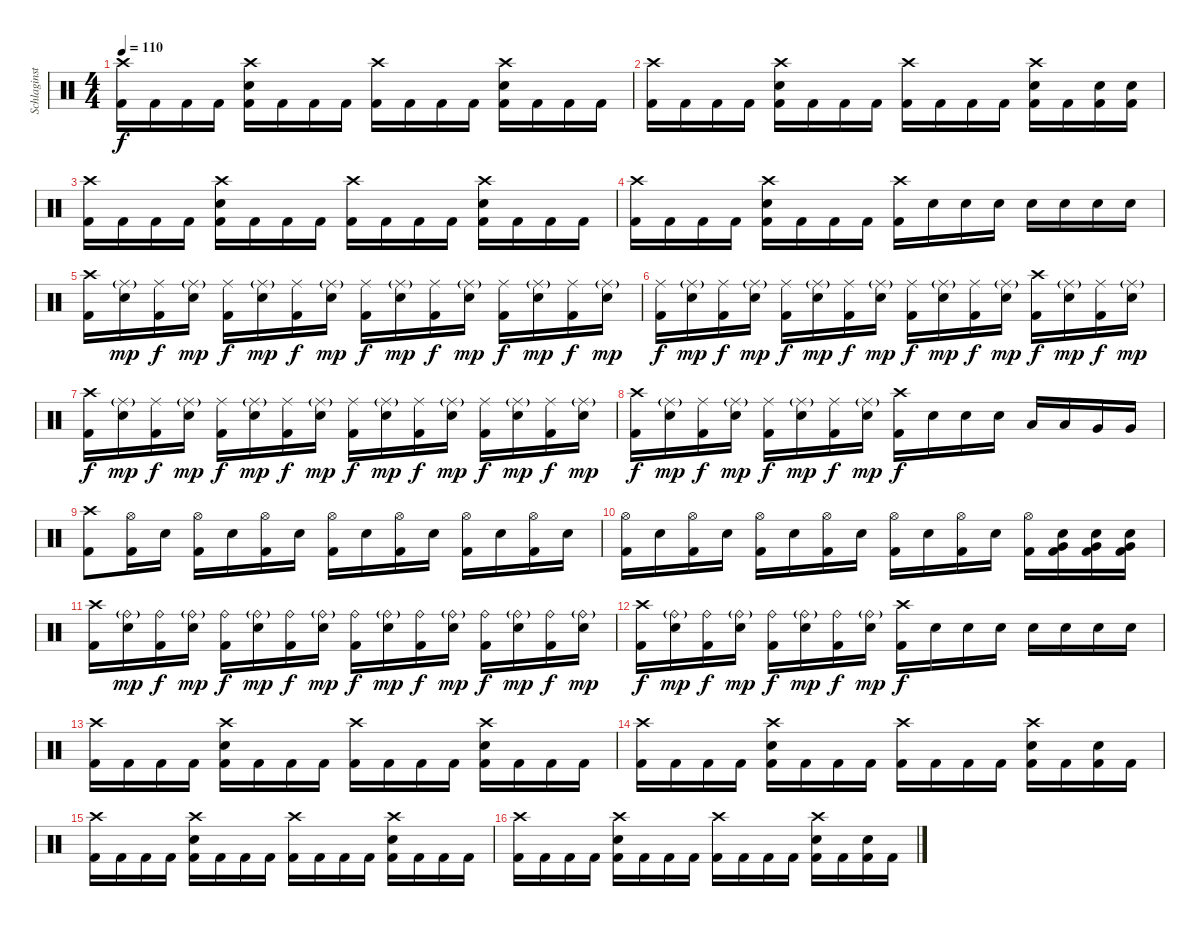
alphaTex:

\track ("Schlaginstrumente - Auswahl" "Schlaginst") {instrument percussion}
\staff {score}
\articulation defaults
\ts (4 4)
\tempo 110
\clef neutral
\ks c
("Crash high (hit)" "Kick (hit) 2").16{dy f} "Kick (hit) 2".16 "Kick (hit) 2".16 "Kick (hit) 2".16 ("Crash high (hit)" "Snare (hit) 2" "Kick (hit) 2").16 "Kick (hit) 2".16 "Kick (hit) 2".16 "Kick (hit) 2".16 ("Crash high (hit)" "Kick (hit) 2").16 "Kick (hit) 2".16 "Kick (hit) 2".16 "Kick (hit) 2".16 ("Crash high (hit)" "Snare (hit) 2" "Kick (hit) 2").16 "Kick (hit) 2".16 "Kick (hit) 2".16 "Kick (hit) 2".16 |
("Crash high (hit)" "Kick (hit) 2").16 "Kick (hit) 2".16 "Kick (hit) 2".16 "Kick (hit) 2".16 ("Crash high (hit)" "Snare (hit) 2" "Kick (hit) 2").16 "Kick (hit) 2".16 "Kick (hit) 2".16 "Kick (hit) 2".16 ("Crash high (hit)" "Kick (hit) 2").16 "Kick (hit) 2".16 "Kick (hit) 2".16 "Kick (hit) 2".16 ("Crash high (hit)" "Snare (hit) 2" "Kick (hit) 2").16 "Kick (hit) 2".16 ("Snare (hit) 2" "Kick (hit) 2").16 ("Snare (hit) 2" "Kick (hit) 2").16 |
("Crash high (hit)" "Kick (hit) 2").16 "Kick (hit) 2".16 "Kick (hit) 2".16 "Kick (hit) 2".16 ("Crash high (hit)" "Snare (hit) 2" "Kick (hit) 2").16 "Kick (hit) 2".16 "Kick (hit) 2".16 "Kick (hit) 2".16 ("Crash high (hit)" "Kick (hit) 2").16 "Kick (hit) 2".16 "Kick (hit) 2".16 "Kick (hit) 2".16 ("Crash high (hit)" "Snare (hit) 2" "Kick (hit) 2").16 "Kick (hit) 2".16 "Kick (hit) 2".16 "Kick (hit) 2".16 |
("Crash high (hit)" "Kick (hit) 2").16 "Kick (hit) 2".16 "Kick (hit) 2".16 "Kick (hit) 2".16 ("Crash high (hit)" "Snare (hit) 2" "Kick (hit) 2").16 "Kick (hit) 2".16 "Kick (hit) 2".16 "Kick (hit) 2".16 ("Crash high (hit)" "Kick (hit) 2").16 "Snare (hit) 2".16 "Snare (hit) 2".16 "Snare (hit) 2".16 "Snare (hit) 2".16 "Snare (hit) 2".16 "Snare (hit) 2".16 "Snare (hit) 2".16 |
("Crash high (hit)" "Kick (hit) 2").16 ("Ride (middle)"{g} "Snare (hit) 2").16{dy mp} ("Ride (middle)" "Kick (hit) 2").16{dy f} ("Ride (middle)"{g} "Snare (hit) 2").16{dy mp} ("Ride (middle)" "Kick (hit) 2").16{dy f} ("Ride (middle)"{g} "Snare (hit) 2").16{dy mp} ("Ride (middle)" "Kick (hit) 2").16{dy f} ("Ride (middle)"{g} "Snare (hit) 2").16{dy mp} ("Ride (middle)" "Kick (hit) 2").16{dy f} ("Ride (middle)"{g} "Snare (hit) 2").16{dy mp} ("Ride (middle)" "Kick (hit) 2").16{dy f} ("Ride (middle)"{g} "Snare (hit) 2").16{dy mp} ("Ride (middle)" "Kick (hit) 2").16{dy f} ("Ride (middle)"{g} "Snare (hit) 2").16{dy mp} ("Ride (middle)" "Kick (hit) 2").16{dy f} ("Ride (middle)"{g} "Snare (hit) 2").16{dy mp} |
("Ride (middle)" "Kick (hit) 2").16{dy f} ("Ride (middle)"{g} "Snare (hit) 2").16{dy mp} ("Ride (middle)" "Kick (hit) 2").16{dy f} ("Ride (middle)"{g} "Snare (hit) 2").16{dy mp} ("Ride (middle)" "Kick (hit) 2").16{dy f} ("Ride (middle)"{g} "Snare (hit) 2").16{dy mp} ("Ride (middle)" "Kick (hit) 2").16{dy f} ("Ride (middle)"{g} "Snare (hit) 2").16{dy mp} ("Ride (middle)" "Kick (hit) 2").16{dy f} ("Ride (middle)"{g} "Snare (hit) 2").16{dy mp} ("Ride (middle)" "Kick (hit) 2").16{dy f} ("Ride (middle)"{g} "Snare (hit) 2").16{dy mp} ("Crash high (hit)" "Kick (hit) 2").16{dy f} ("Ride (middle)"{g} "Snare (hit) 2").16{dy mp} ("Ride (middle)" "Kick (hit) 2").16{dy f} ("Ride (middle)"{g} "Snare (hit) 2").16{dy mp} |
("Crash high (hit)" "Kick (hit) 2").16{dy f} ("Ride (middle)"{g} "Snare (hit) 2").16{dy mp} ("Ride (middle)" "Kick (hit) 2").16{dy f} ("Ride (middle)"{g} "Snare (hit) 2").16{dy mp} ("Ride (middle)" "Kick (hit) 2").16{dy f} ("Ride (middle)"{g} "Snare (hit) 2").16{dy mp} ("Ride (middle)" "Kick (hit) 2").16{dy f} ("Ride (middle)"{g} "Snare (hit) 2").16{dy mp} ("Ride (middle)" "Kick (hit) 2").16{dy f} ("Ride (middle)"{g} "Snare (hit) 2").16{dy mp} ("Ride (middle)" "Kick (hit) 2").16{dy f} ("Ride (middle)"{g} "Snare (hit) 2").16{dy mp} ("Ride (middle)" "Kick (hit) 2").16{dy f} ("Ride (middle)"{g} "Snare (hit) 2").16{dy mp} ("Ride (middle)" "Kick (hit) 2").16{dy f} ("Ride (middle)"{g} "Snare (hit) 2").16{dy mp} |
("Crash high (hit)" "Kick (hit) 2").16{dy f} ("Ride (middle)"{g} "Snare (hit) 2").16{dy mp} ("Ride (middle)" "Kick (hit) 2").16{dy f} ("Ride (middle)"{g} "Snare (hit) 2").16{dy mp} ("Ride (middle)" "Kick (hit) 2").16{dy f} ("Ride (middle)"{g} "Snare (hit) 2").16{dy mp} ("Ride (middle)" "Kick (hit) 2").16{dy f} ("Ride (middle)"{g} "Snare (hit) 2").16{dy mp} ("Crash high (hit)" "Kick (hit) 2").16{dy f} "Snare (hit) 2".16 "Snare (hit) 2".16 "Snare (hit) 2".16 "Low Tom (hit)".16 "Low Tom (hit)".16 "Very Low Tom (hit)".16 "Very Low Tom (hit)".16 |
("Crash high (hit)" "Kick (hit) 2").8 ("Hi-Hat (open)" "Kick (hit) 2").16 "Snare (hit) 2".16 ("Hi-Hat (open)" "Kick (hit) 2").16 "Snare (hit) 2".16 ("Hi-Hat (open)" "Kick (hit) 2").16 "Snare (hit) 2".16 ("Hi-Hat (open)" "Kick (hit) 2").16 "Snare (hit) 2".16 ("Hi-Hat (open)" "Kick (hit) 2").16 "Snare (hit) 2".16 ("Hi-Hat (open)" "Kick (hit) 2").16 "Snare (hit) 2".16 ("Hi-Hat (open)" "Kick (hit) 2").16 "Snare (hit) 2".16 |
("Hi-Hat (open)" "Kick (hit) 2").16 "Snare (hit) 2".16 ("Hi-Hat (open)" "Kick (hit) 2").16 "Snare (hit) 2".16 ("Hi-Hat (open)" "Kick (hit) 2").16 "Snare (hit) 2".16 ("Hi-Hat (open)" "Kick (hit) 2").16 "Snare (hit) 2".16 ("Hi-Hat (open)" "Kick (hit) 2").16 "Snare (hit) 2".16 ("Hi-Hat (open)" "Kick (hit) 2").16 "Snare (hit) 2".16 ("Hi-Hat (open)" "Kick (hit) 2").16 ("Snare (hit) 2" "Very Low Tom (hit)" "Kick (hit) 2").16 ("Snare (hit) 2" "Very Low Tom (hit)" "Kick (hit) 2").16 ("Snare (hit) 2" "Very Low Tom (hit)" "Kick (hit) 2").16 |
("Crash high (hit)" "Kick (hit) 2").16 ("Ride (bell)"{g} "Snare (hit) 2").16{dy mp} ("Ride (bell)" "Kick (hit) 2").16{dy f} ("Ride (bell)"{g} "Snare (hit) 2").16{dy mp} ("Ride (bell)" "Kick (hit) 2").16{dy f} ("Ride (bell)"{g} "Snare (hit) 2").16{dy mp} ("Ride (bell)" "Kick (hit) 2").16{dy f} ("Ride (bell)"{g} "Snare (hit) 2").16{dy mp} ("Ride (bell)" "Kick (hit) 2").16{dy f} ("Ride (bell)"{g} "Snare (hit) 2").16{dy mp} ("Ride (bell)" "Kick (hit) 2").16{dy f} ("Ride (bell)"{g} "Snare (hit) 2").16{dy mp} ("Ride (bell)" "Kick (hit) 2").16{dy f} ("Ride (bell)"{g} "Snare (hit) 2").16{dy mp} ("Ride (bell)" "Kick (hit) 2").16{dy f} ("Ride (bell)"{g} "Snare (hit) 2").16{dy mp} |
("Crash high (hit)" "Kick (hit) 2").16{dy f} ("Ride (bell)"{g} "Snare (hit) 2").16{dy mp} ("Ride (bell)" "Kick (hit) 2").16{dy f} ("Ride (bell)"{g} "Snare (hit) 2").16{dy mp} ("Ride (bell)" "Kick (hit) 2").16{dy f} ("Ride (bell)"{g} "Snare (hit) 2").16{dy mp} ("Ride (bell)" "Kick (hit) 2").16{dy f} ("Ride (bell)"{g} "Snare (hit) 2").16{dy mp} ("Crash high (hit)" "Kick (hit) 2").16{dy f} "Snare (hit) 2".16 "Snare (hit) 2".16 "Snare (hit) 2".16 "Snare (hit) 2".16 "Snare (hit) 2".16 "Snare (hit) 2".16 "Snare (hit) 2".16 |
("Crash high (hit)" "Kick (hit) 2").16 "Kick (hit) 2".16 "Kick (hit) 2".16 "Kick (hit) 2".16 ("Crash high (hit)" "Snare (hit) 2" "Kick (hit) 2").16 "Kick (hit) 2".16 "Kick (hit) 2".16 "Kick (hit) 2".16 ("Crash high (hit)" "Kick (hit) 2").16 "Kick (hit) 2".16 "Kick (hit) 2".16 "Kick (hit) 2".16 ("Crash high (hit)" "Snare (hit) 2" "Kick (hit) 2").16 "Kick (hit) 2".16 "Kick (hit) 2".16 "Kick (hit) 2".16 |
("Crash high (hit)" "Kick (hit) 2").16 "Kick (hit) 2".16 "Kick (hit) 2".16 "Kick (hit) 2".16 ("Crash high (hit)" "Snare (hit) 2" "Kick (hit) 2").16 "Kick (hit) 2".16 "Kick (hit) 2".16 "Kick (hit) 2".16 ("Crash high (hit)" "Kick (hit) 2").16 "Kick (hit) 2".16 "Kick (hit) 2".16 "Kick (hit) 2".16 ("Crash high (hit)" "Snare (hit) 2" "Kick (hit) 2").16 "Kick (hit) 2".16 ("Snare (hit) 2" "Kick (hit) 2").16 "Kick (hit) 2".16 |
("Crash high (hit)" "Kick (hit) 2").16 "Kick (hit) 2".16 "Kick (hit) 2".16 "Kick (hit) 2".16 ("Crash high (hit)" "Snare (hit) 2" "Kick (hit) 2").16 "Kick (hit) 2".16 "Kick (hit) 2".16 "Kick (hit) 2".16 ("Crash high (hit)" "Kick (hit) 2").16 "Kick (hit) 2".16 "Kick (hit) 2".16 "Kick (hit) 2".16 ("Crash high (hit)" "Snare (hit) 2" "Kick (hit) 2").16 "Kick (hit) 2".16 "Kick (hit) 2".16 "Kick (hit) 2".16 |
("Crash high (hit)" "Kick (hit) 2").16 "Kick (hit) 2".16 "Kick (hit) 2".16 "Kick (hit) 2".16 ("Crash high (hit)" "Snare (hit) 2" "Kick (hit) 2").16 "Kick (hit) 2".16 "Kick (hit) 2".16 "Kick (hit) 2".16 ("Crash high (hit)" "Kick (hit) 2").16 "Kick (hit) 2".16 "Kick (hit) 2".16 "Kick (hit) 2".16 ("Crash high (hit)" "Snare (hit) 2" "Kick (hit) 2").16 "Kick (hit) 2".16 ("Snare (hit) 2" "Kick (hit) 2").16 "Kick (hit) 2".16
